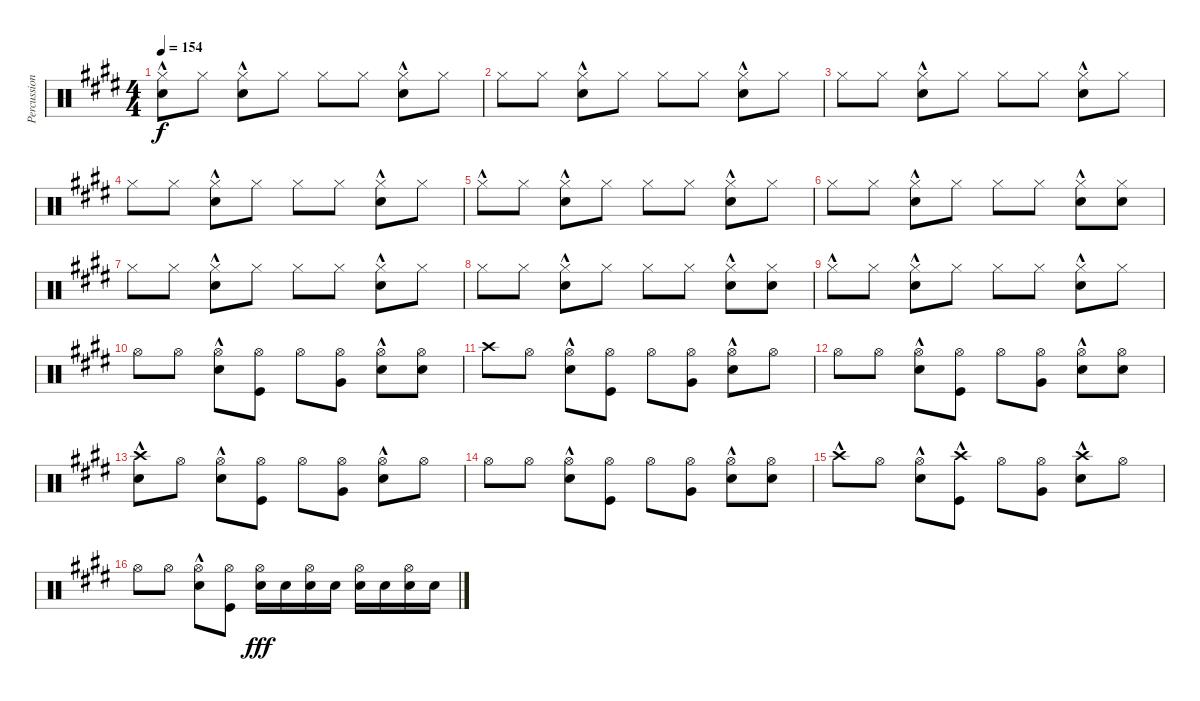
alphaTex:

\track ("Percussion (Derek Grant)" "Percussion") {instrument percussion}
\staff {score}
\articulation defaults
\ts (4 4)
\tempo 154
\clef neutral
\ks c#minor
("Hi-Hat (closed)"{hac} "Electric Snare (hit)").8{dy f} "Hi-Hat (closed)".8 ("Hi-Hat (closed)" "Snare (hit) 2"{hac}).8 "Hi-Hat (closed)".8 "Hi-Hat (closed)".8 "Hi-Hat (closed)".8 ("Hi-Hat (closed)" "Snare (hit) 2"{hac}).8 "Hi-Hat (closed)".8 |
"Hi-Hat (closed)".8 "Hi-Hat (closed)".8 ("Hi-Hat (closed)" "Snare (hit) 2"{hac}).8 "Hi-Hat (closed)".8 "Hi-Hat (closed)".8 "Hi-Hat (closed)".8 ("Hi-Hat (closed)" "Snare (hit) 2"{hac}).8 "Hi-Hat (closed)".8 |
"Hi-Hat (closed)".8 "Hi-Hat (closed)".8 ("Hi-Hat (closed)" "Snare (hit) 2"{hac}).8 "Hi-Hat (closed)".8 "Hi-Hat (closed)".8 "Hi-Hat (closed)".8 ("Hi-Hat (closed)" "Snare (hit) 2"{hac}).8 "Hi-Hat (closed)".8 |
"Hi-Hat (closed)".8 "Hi-Hat (closed)".8 ("Hi-Hat (closed)" "Snare (hit) 2"{hac}).8 "Hi-Hat (closed)".8 "Hi-Hat (closed)".8 "Hi-Hat (closed)".8 ("Hi-Hat (closed)" "Snare (hit) 2"{hac}).8 "Hi-Hat (closed)".8 |
"Hi-Hat (closed)"{hac}.8 "Hi-Hat (closed)".8 ("Hi-Hat (closed)" "Snare (hit) 2"{hac}).8 "Hi-Hat (closed)".8 "Hi-Hat (closed)".8 "Hi-Hat (closed)".8 ("Hi-Hat (closed)" "Snare (hit) 2"{hac}).8 "Hi-Hat (closed)".8 |
"Hi-Hat (closed)".8 "Hi-Hat (closed)".8 ("Hi-Hat (closed)" "Snare (hit) 2"{hac}).8 "Hi-Hat (closed)".8 "Hi-Hat (closed)".8 "Hi-Hat (closed)".8 ("Hi-Hat (closed)" "Snare (hit) 2"{hac}).8 ("Hi-Hat (closed)" "Electric Snare (hit)").8 |
"Hi-Hat (closed)".8 "Hi-Hat (closed)".8 ("Hi-Hat (closed)" "Snare (hit) 2"{hac}).8 "Hi-Hat (closed)".8 "Hi-Hat (closed)".8 "Hi-Hat (closed)".8 ("Hi-Hat (closed)" "Snare (hit) 2"{hac}).8 "Hi-Hat (closed)".8 |
"Hi-Hat (closed)".8 "Hi-Hat (closed)".8 ("Hi-Hat (closed)" "Snare (hit) 2"{hac}).8 "Hi-Hat (closed)".8 "Hi-Hat (closed)".8 "Hi-Hat (closed)".8 ("Hi-Hat (closed)" "Snare (hit) 2"{hac}).8 ("Hi-Hat (closed)" "Electric Snare (hit)").8 |
"Hi-Hat (closed)"{hac}.8 "Hi-Hat (closed)".8 ("Hi-Hat (closed)" "Snare (hit) 2"{hac}).8 "Hi-Hat (closed)".8 "Hi-Hat (closed)".8 "Hi-Hat (closed)".8 ("Hi-Hat (closed)" "Snare (hit) 2"{hac}).8 "Hi-Hat (closed)".8 |
"Hi-Hat (open)".8 "Hi-Hat (open)".8 ("Hi-Hat (open)" "Snare (hit) 2"{hac}).8 ("Hi-Hat (open)" "Kick (hit)").8 "Hi-Hat (open)".8 ("Hi-Hat (open)" "Very Low Tom (hit)").8 ("Hi-Hat (open)" "Snare (hit) 2"{hac}).8 ("Hi-Hat (open)" "Electric Snare (hit)").8 |
"Crash high (hit)".8 "Hi-Hat (open)".8 ("Hi-Hat (open)" "Snare (hit) 2"{hac}).8 ("Hi-Hat (open)" "Kick (hit)").8 "Hi-Hat (open)".8 ("Hi-Hat (open)" "Very Low Tom (hit)").8 ("Hi-Hat (open)" "Snare (hit) 2"{hac}).8 "Hi-Hat (open)".8 |
"Hi-Hat (open)".8 "Hi-Hat (open)".8 ("Hi-Hat (open)" "Snare (hit) 2"{hac}).8 ("Hi-Hat (open)" "Kick (hit)").8 "Hi-Hat (open)".8 ("Hi-Hat (open)" "Very Low Tom (hit)").8 ("Hi-Hat (open)" "Snare (hit) 2"{hac}).8 ("Hi-Hat (open)" "Electric Snare (hit)").8 |
("Crash high (hit)"{hac} "Electric Snare (hit)").8 "Hi-Hat (open)".8 ("Hi-Hat (open)" "Snare (hit) 2"{hac}).8 ("Hi-Hat (open)" "Kick (hit)").8 "Hi-Hat (open)".8 ("Hi-Hat (open)" "Very Low Tom (hit)").8 ("Hi-Hat (open)" "Snare (hit) 2"{hac}).8 "Hi-Hat (open)".8 |
"Hi-Hat (open)".8 "Hi-Hat (open)".8 ("Hi-Hat (open)" "Snare (hit) 2"{hac}).8 ("Hi-Hat (open)" "Kick (hit)").8 "Hi-Hat (open)".8 ("Hi-Hat (open)" "Very Low Tom (hit)").8 ("Hi-Hat (open)" "Snare (hit) 2"{hac}).8 ("Hi-Hat (open)" "Electric Snare (hit)").8 |
"Crash high (hit)"{hac}.8 "Hi-Hat (open)".8 ("Hi-Hat (open)" "Snare (hit) 2"{hac}).8 ("Crash high (hit)"{hac} "Kick (hit)").8 "Hi-Hat (open)".8 ("Hi-Hat (open)" "Very Low Tom (hit)").8 ("Crash high (hit)"{hac} "Snare (hit) 2"{hac}).8 "Hi-Hat (open)".8 |
"Hi-Hat (open)".8 "Hi-Hat (open)".8 ("Hi-Hat (open)" "Snare (hit) 2"{hac}).8 ("Hi-Hat (open)" "Kick (hit)").8 ("Hi-Hat (open)" "Snare (hit) 2").16{dy fff} "Snare (hit) 2".16 ("Hi-Hat (open)" "Snare (hit) 2").16 "Snare (hit) 2".16 ("Hi-Hat (open)" "Snare (hit) 2").16 "Snare (hit) 2".16 ("Hi-Hat (open)" "Snare (hit) 2").16 "Snare (hit) 2".16
